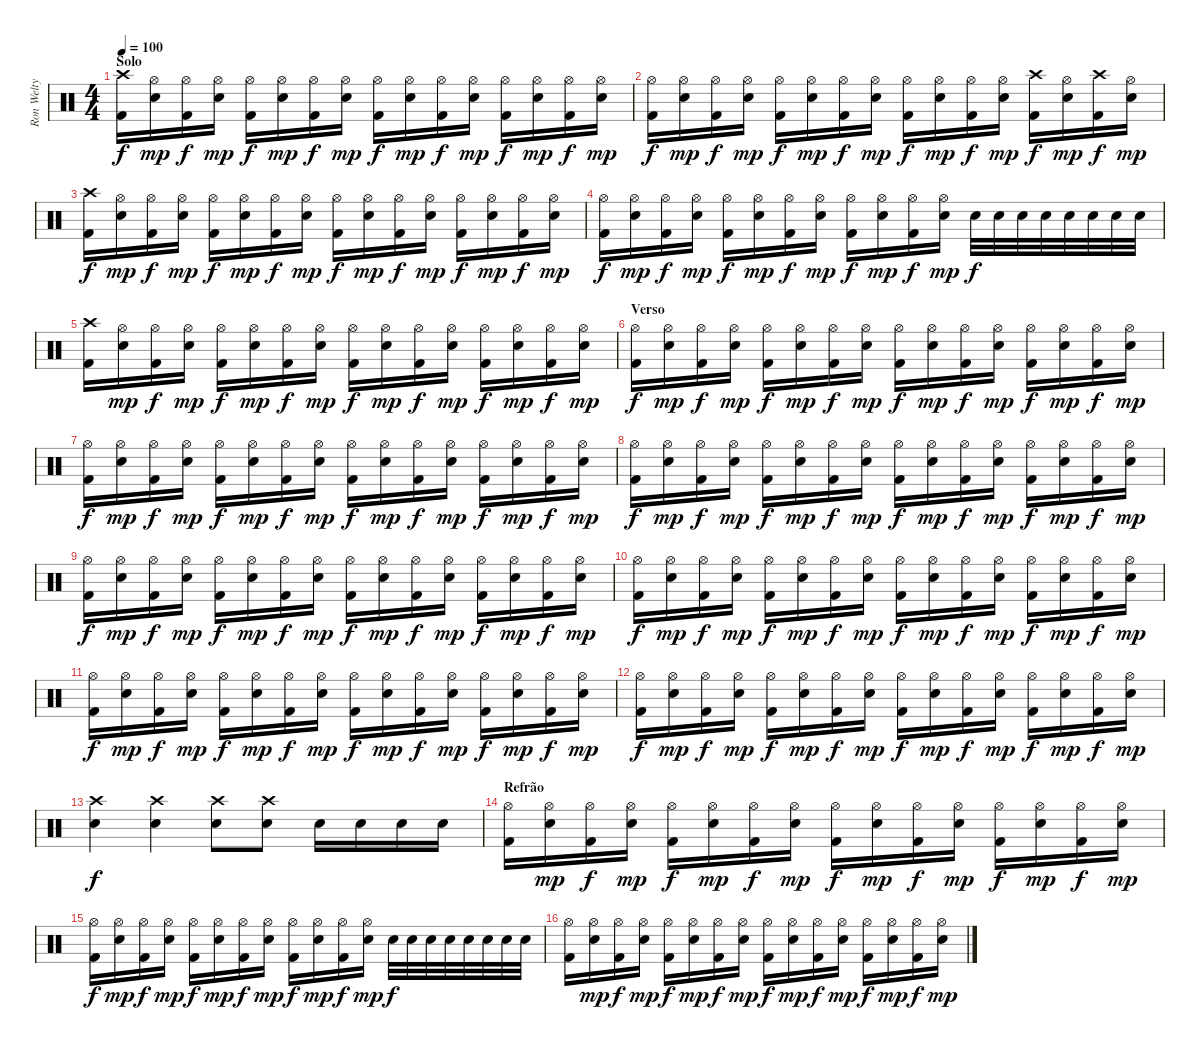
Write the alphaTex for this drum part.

\track ("Ron Welty" "Ron Welty") {instrument percussion}
\staff {score}
\articulation defaults
\ts (4 4)
\section ("" "Solo")
\tempo 100
\clef neutral
\ks c
("Crash high (hit)" "Kick (hit) 2").16{dy f} ("Hi-Hat (open)" "Snare (hit) 2").16{dy mp} ("Hi-Hat (open)" "Kick (hit) 2").16{dy f} ("Hi-Hat (open)" "Snare (hit) 2").16{dy mp} ("Hi-Hat (open)" "Kick (hit) 2").16{dy f} ("Hi-Hat (open)" "Snare (hit) 2").16{dy mp} ("Hi-Hat (open)" "Kick (hit) 2").16{dy f} ("Hi-Hat (open)" "Snare (hit) 2").16{dy mp} ("Hi-Hat (open)" "Kick (hit) 2").16{dy f} ("Hi-Hat (open)" "Snare (hit) 2").16{dy mp} ("Hi-Hat (open)" "Kick (hit) 2").16{dy f} ("Hi-Hat (open)" "Snare (hit) 2").16{dy mp} ("Hi-Hat (open)" "Kick (hit) 2").16{dy f} ("Hi-Hat (open)" "Snare (hit) 2").16{dy mp} ("Hi-Hat (open)" "Kick (hit) 2").16{dy f} ("Hi-Hat (open)" "Snare (hit) 2").16{dy mp} |
("Hi-Hat (open)" "Kick (hit) 2").16{dy f} ("Hi-Hat (open)" "Snare (hit) 2").16{dy mp} ("Hi-Hat (open)" "Kick (hit) 2").16{dy f} ("Hi-Hat (open)" "Snare (hit) 2").16{dy mp} ("Hi-Hat (open)" "Kick (hit) 2").16{dy f} ("Hi-Hat (open)" "Snare (hit) 2").16{dy mp} ("Hi-Hat (open)" "Kick (hit) 2").16{dy f} ("Hi-Hat (open)" "Snare (hit) 2").16{dy mp} ("Hi-Hat (open)" "Kick (hit) 2").16{dy f} ("Hi-Hat (open)" "Snare (hit) 2").16{dy mp} ("Hi-Hat (open)" "Kick (hit) 2").16{dy f} ("Hi-Hat (open)" "Snare (hit) 2").16{dy mp} ("Crash high (hit)" "Kick (hit) 2").16{dy f} ("Hi-Hat (open)" "Snare (hit) 2").16{dy mp} ("Crash high (hit)" "Kick (hit) 2").16{dy f} ("Hi-Hat (open)" "Snare (hit) 2").16{dy mp} |
("Crash high (hit)" "Kick (hit) 2").16{dy f} ("Hi-Hat (open)" "Snare (hit) 2").16{dy mp} ("Hi-Hat (open)" "Kick (hit) 2").16{dy f} ("Hi-Hat (open)" "Snare (hit) 2").16{dy mp} ("Hi-Hat (open)" "Kick (hit) 2").16{dy f} ("Hi-Hat (open)" "Snare (hit) 2").16{dy mp} ("Hi-Hat (open)" "Kick (hit) 2").16{dy f} ("Hi-Hat (open)" "Snare (hit) 2").16{dy mp} ("Hi-Hat (open)" "Kick (hit) 2").16{dy f} ("Hi-Hat (open)" "Snare (hit) 2").16{dy mp} ("Hi-Hat (open)" "Kick (hit) 2").16{dy f} ("Hi-Hat (open)" "Snare (hit) 2").16{dy mp} ("Hi-Hat (open)" "Kick (hit) 2").16{dy f} ("Hi-Hat (open)" "Snare (hit) 2").16{dy mp} ("Hi-Hat (open)" "Kick (hit) 2").16{dy f} ("Hi-Hat (open)" "Snare (hit) 2").16{dy mp} |
("Hi-Hat (open)" "Kick (hit) 2").16{dy f} ("Hi-Hat (open)" "Snare (hit) 2").16{dy mp} ("Hi-Hat (open)" "Kick (hit) 2").16{dy f} ("Hi-Hat (open)" "Snare (hit) 2").16{dy mp} ("Hi-Hat (open)" "Kick (hit) 2").16{dy f} ("Hi-Hat (open)" "Snare (hit) 2").16{dy mp} ("Hi-Hat (open)" "Kick (hit) 2").16{dy f} ("Hi-Hat (open)" "Snare (hit) 2").16{dy mp} ("Hi-Hat (open)" "Kick (hit) 2").16{dy f} ("Hi-Hat (open)" "Snare (hit) 2").16{dy mp} ("Hi-Hat (open)" "Kick (hit) 2").16{dy f} ("Hi-Hat (open)" "Snare (hit) 2").16{dy mp} "Snare (hit) 2".32{dy f} "Snare (hit) 2".32 "Snare (hit) 2".32 "Snare (hit) 2".32 "Snare (hit) 2".32 "Snare (hit) 2".32 "Snare (hit) 2".32 "Snare (hit) 2".32 |
("Crash high (hit)" "Kick (hit) 2").16 ("Hi-Hat (open)" "Snare (hit) 2").16{dy mp} ("Hi-Hat (open)" "Kick (hit) 2").16{dy f} ("Hi-Hat (open)" "Snare (hit) 2").16{dy mp} ("Hi-Hat (open)" "Kick (hit) 2").16{dy f} ("Hi-Hat (open)" "Snare (hit) 2").16{dy mp} ("Hi-Hat (open)" "Kick (hit) 2").16{dy f} ("Hi-Hat (open)" "Snare (hit) 2").16{dy mp} ("Hi-Hat (open)" "Kick (hit) 2").16{dy f} ("Hi-Hat (open)" "Snare (hit) 2").16{dy mp} ("Hi-Hat (open)" "Kick (hit) 2").16{dy f} ("Hi-Hat (open)" "Snare (hit) 2").16{dy mp} ("Hi-Hat (open)" "Kick (hit) 2").16{dy f} ("Hi-Hat (open)" "Snare (hit) 2").16{dy mp} ("Hi-Hat (open)" "Kick (hit) 2").16{dy f} ("Hi-Hat (open)" "Snare (hit) 2").16{dy mp} |
\section ("" "Verso")
("Hi-Hat (open)" "Kick (hit) 2").16{dy f} ("Hi-Hat (open)" "Snare (hit) 2").16{dy mp} ("Hi-Hat (open)" "Kick (hit) 2").16{dy f} ("Hi-Hat (open)" "Snare (hit) 2").16{dy mp} ("Hi-Hat (open)" "Kick (hit) 2").16{dy f} ("Hi-Hat (open)" "Snare (hit) 2").16{dy mp} ("Hi-Hat (open)" "Kick (hit) 2").16{dy f} ("Hi-Hat (open)" "Snare (hit) 2").16{dy mp} ("Hi-Hat (open)" "Kick (hit) 2").16{dy f} ("Hi-Hat (open)" "Snare (hit) 2").16{dy mp} ("Hi-Hat (open)" "Kick (hit) 2").16{dy f} ("Hi-Hat (open)" "Snare (hit) 2").16{dy mp} ("Hi-Hat (open)" "Kick (hit) 2").16{dy f} ("Hi-Hat (open)" "Snare (hit) 2").16{dy mp} ("Hi-Hat (open)" "Kick (hit) 2").16{dy f} ("Hi-Hat (open)" "Snare (hit) 2").16{dy mp} |
("Hi-Hat (open)" "Kick (hit) 2").16{dy f} ("Hi-Hat (open)" "Snare (hit) 2").16{dy mp} ("Hi-Hat (open)" "Kick (hit) 2").16{dy f} ("Hi-Hat (open)" "Snare (hit) 2").16{dy mp} ("Hi-Hat (open)" "Kick (hit) 2").16{dy f} ("Hi-Hat (open)" "Snare (hit) 2").16{dy mp} ("Hi-Hat (open)" "Kick (hit) 2").16{dy f} ("Hi-Hat (open)" "Snare (hit) 2").16{dy mp} ("Hi-Hat (open)" "Kick (hit) 2").16{dy f} ("Hi-Hat (open)" "Snare (hit) 2").16{dy mp} ("Hi-Hat (open)" "Kick (hit) 2").16{dy f} ("Hi-Hat (open)" "Snare (hit) 2").16{dy mp} ("Hi-Hat (open)" "Kick (hit) 2").16{dy f} ("Hi-Hat (open)" "Snare (hit) 2").16{dy mp} ("Hi-Hat (open)" "Kick (hit) 2").16{dy f} ("Hi-Hat (open)" "Snare (hit) 2").16{dy mp} |
("Hi-Hat (open)" "Kick (hit) 2").16{dy f} ("Hi-Hat (open)" "Snare (hit) 2").16{dy mp} ("Hi-Hat (open)" "Kick (hit) 2").16{dy f} ("Hi-Hat (open)" "Snare (hit) 2").16{dy mp} ("Hi-Hat (open)" "Kick (hit) 2").16{dy f} ("Hi-Hat (open)" "Snare (hit) 2").16{dy mp} ("Hi-Hat (open)" "Kick (hit) 2").16{dy f} ("Hi-Hat (open)" "Snare (hit) 2").16{dy mp} ("Hi-Hat (open)" "Kick (hit) 2").16{dy f} ("Hi-Hat (open)" "Snare (hit) 2").16{dy mp} ("Hi-Hat (open)" "Kick (hit) 2").16{dy f} ("Hi-Hat (open)" "Snare (hit) 2").16{dy mp} ("Hi-Hat (open)" "Kick (hit) 2").16{dy f} ("Hi-Hat (open)" "Snare (hit) 2").16{dy mp} ("Hi-Hat (open)" "Kick (hit) 2").16{dy f} ("Hi-Hat (open)" "Snare (hit) 2").16{dy mp} |
("Hi-Hat (open)" "Kick (hit) 2").16{dy f} ("Hi-Hat (open)" "Snare (hit) 2").16{dy mp} ("Hi-Hat (open)" "Kick (hit) 2").16{dy f} ("Hi-Hat (open)" "Snare (hit) 2").16{dy mp} ("Hi-Hat (open)" "Kick (hit) 2").16{dy f} ("Hi-Hat (open)" "Snare (hit) 2").16{dy mp} ("Hi-Hat (open)" "Kick (hit) 2").16{dy f} ("Hi-Hat (open)" "Snare (hit) 2").16{dy mp} ("Hi-Hat (open)" "Kick (hit) 2").16{dy f} ("Hi-Hat (open)" "Snare (hit) 2").16{dy mp} ("Hi-Hat (open)" "Kick (hit) 2").16{dy f} ("Hi-Hat (open)" "Snare (hit) 2").16{dy mp} ("Hi-Hat (open)" "Kick (hit) 2").16{dy f} ("Hi-Hat (open)" "Snare (hit) 2").16{dy mp} ("Hi-Hat (open)" "Kick (hit) 2").16{dy f} ("Hi-Hat (open)" "Snare (hit) 2").16{dy mp} |
("Hi-Hat (open)" "Kick (hit) 2").16{dy f} ("Hi-Hat (open)" "Snare (hit) 2").16{dy mp} ("Hi-Hat (open)" "Kick (hit) 2").16{dy f} ("Hi-Hat (open)" "Snare (hit) 2").16{dy mp} ("Hi-Hat (open)" "Kick (hit) 2").16{dy f} ("Hi-Hat (open)" "Snare (hit) 2").16{dy mp} ("Hi-Hat (open)" "Kick (hit) 2").16{dy f} ("Hi-Hat (open)" "Snare (hit) 2").16{dy mp} ("Hi-Hat (open)" "Kick (hit) 2").16{dy f} ("Hi-Hat (open)" "Snare (hit) 2").16{dy mp} ("Hi-Hat (open)" "Kick (hit) 2").16{dy f} ("Hi-Hat (open)" "Snare (hit) 2").16{dy mp} ("Hi-Hat (open)" "Kick (hit) 2").16{dy f} ("Hi-Hat (open)" "Snare (hit) 2").16{dy mp} ("Hi-Hat (open)" "Kick (hit) 2").16{dy f} ("Hi-Hat (open)" "Snare (hit) 2").16{dy mp} |
("Hi-Hat (open)" "Kick (hit) 2").16{dy f} ("Hi-Hat (open)" "Snare (hit) 2").16{dy mp} ("Hi-Hat (open)" "Kick (hit) 2").16{dy f} ("Hi-Hat (open)" "Snare (hit) 2").16{dy mp} ("Hi-Hat (open)" "Kick (hit) 2").16{dy f} ("Hi-Hat (open)" "Snare (hit) 2").16{dy mp} ("Hi-Hat (open)" "Kick (hit) 2").16{dy f} ("Hi-Hat (open)" "Snare (hit) 2").16{dy mp} ("Hi-Hat (open)" "Kick (hit) 2").16{dy f} ("Hi-Hat (open)" "Snare (hit) 2").16{dy mp} ("Hi-Hat (open)" "Kick (hit) 2").16{dy f} ("Hi-Hat (open)" "Snare (hit) 2").16{dy mp} ("Hi-Hat (open)" "Kick (hit) 2").16{dy f} ("Hi-Hat (open)" "Snare (hit) 2").16{dy mp} ("Hi-Hat (open)" "Kick (hit) 2").16{dy f} ("Hi-Hat (open)" "Snare (hit) 2").16{dy mp} |
("Hi-Hat (open)" "Kick (hit) 2").16{dy f} ("Hi-Hat (open)" "Snare (hit) 2").16{dy mp} ("Hi-Hat (open)" "Kick (hit) 2").16{dy f} ("Hi-Hat (open)" "Snare (hit) 2").16{dy mp} ("Hi-Hat (open)" "Kick (hit) 2").16{dy f} ("Hi-Hat (open)" "Snare (hit) 2").16{dy mp} ("Hi-Hat (open)" "Kick (hit) 2").16{dy f} ("Hi-Hat (open)" "Snare (hit) 2").16{dy mp} ("Hi-Hat (open)" "Kick (hit) 2").16{dy f} ("Hi-Hat (open)" "Snare (hit) 2").16{dy mp} ("Hi-Hat (open)" "Kick (hit) 2").16{dy f} ("Hi-Hat (open)" "Snare (hit) 2").16{dy mp} ("Hi-Hat (open)" "Kick (hit) 2").16{dy f} ("Hi-Hat (open)" "Snare (hit) 2").16{dy mp} ("Hi-Hat (open)" "Kick (hit) 2").16{dy f} ("Hi-Hat (open)" "Snare (hit) 2").16{dy mp} |
("Crash high (hit)" "Snare (hit) 2").4{dy f} ("Crash high (hit)" "Snare (hit) 2").4 ("Crash high (hit)" "Snare (hit) 2").8 ("Crash high (hit)" "Snare (hit) 2").8 "Snare (hit) 2".16 "Snare (hit) 2".16 "Snare (hit) 2".16 "Snare (hit) 2".16 |
\section ("" "Refrão")
("Hi-Hat (open)" "Kick (hit) 2").16 ("Hi-Hat (open)" "Snare (hit) 2").16{dy mp} ("Hi-Hat (open)" "Kick (hit) 2").16{dy f} ("Hi-Hat (open)" "Snare (hit) 2").16{dy mp} ("Hi-Hat (open)" "Kick (hit) 2").16{dy f} ("Hi-Hat (open)" "Snare (hit) 2").16{dy mp} ("Hi-Hat (open)" "Kick (hit) 2").16{dy f} ("Hi-Hat (open)" "Snare (hit) 2").16{dy mp} ("Hi-Hat (open)" "Kick (hit) 2").16{dy f} ("Hi-Hat (open)" "Snare (hit) 2").16{dy mp} ("Hi-Hat (open)" "Kick (hit) 2").16{dy f} ("Hi-Hat (open)" "Snare (hit) 2").16{dy mp} ("Hi-Hat (open)" "Kick (hit) 2").16{dy f} ("Hi-Hat (open)" "Snare (hit) 2").16{dy mp} ("Hi-Hat (open)" "Kick (hit) 2").16{dy f} ("Hi-Hat (open)" "Snare (hit) 2").16{dy mp} |
("Hi-Hat (open)" "Kick (hit) 2").16{dy f} ("Hi-Hat (open)" "Snare (hit) 2").16{dy mp} ("Hi-Hat (open)" "Kick (hit) 2").16{dy f} ("Hi-Hat (open)" "Snare (hit) 2").16{dy mp} ("Hi-Hat (open)" "Kick (hit) 2").16{dy f} ("Hi-Hat (open)" "Snare (hit) 2").16{dy mp} ("Hi-Hat (open)" "Kick (hit) 2").16{dy f} ("Hi-Hat (open)" "Snare (hit) 2").16{dy mp} ("Hi-Hat (open)" "Kick (hit) 2").16{dy f} ("Hi-Hat (open)" "Snare (hit) 2").16{dy mp} ("Hi-Hat (open)" "Kick (hit) 2").16{dy f} ("Hi-Hat (open)" "Snare (hit) 2").16{dy mp} "Snare (hit) 2".32{dy f} "Snare (hit) 2".32 "Snare (hit) 2".32 "Snare (hit) 2".32 "Snare (hit) 2".32 "Snare (hit) 2".32 "Snare (hit) 2".32 "Snare (hit) 2".32 |
("Hi-Hat (open)" "Kick (hit) 2").16 ("Hi-Hat (open)" "Snare (hit) 2").16{dy mp} ("Hi-Hat (open)" "Kick (hit) 2").16{dy f} ("Hi-Hat (open)" "Snare (hit) 2").16{dy mp} ("Hi-Hat (open)" "Kick (hit) 2").16{dy f} ("Hi-Hat (open)" "Snare (hit) 2").16{dy mp} ("Hi-Hat (open)" "Kick (hit) 2").16{dy f} ("Hi-Hat (open)" "Snare (hit) 2").16{dy mp} ("Hi-Hat (open)" "Kick (hit) 2").16{dy f} ("Hi-Hat (open)" "Snare (hit) 2").16{dy mp} ("Hi-Hat (open)" "Kick (hit) 2").16{dy f} ("Hi-Hat (open)" "Snare (hit) 2").16{dy mp} ("Hi-Hat (open)" "Kick (hit) 2").16{dy f} ("Hi-Hat (open)" "Snare (hit) 2").16{dy mp} ("Hi-Hat (open)" "Kick (hit) 2").16{dy f} ("Hi-Hat (open)" "Snare (hit) 2").16{dy mp}
